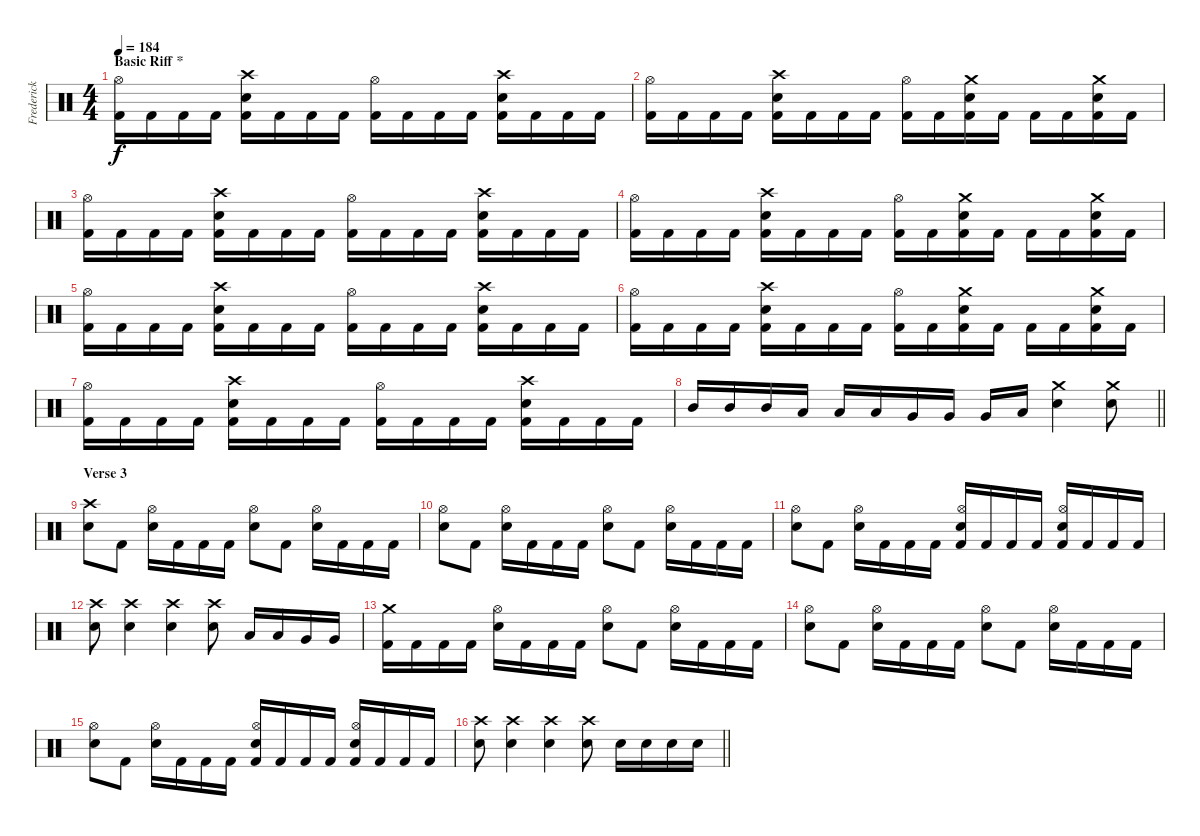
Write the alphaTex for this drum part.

\track ("Frederick Ehmke" "Frederick ") {instrument percussion}
\staff {score}
\articulation defaults
\ts (4 4)
\section ("" "Basic Riff *")
\tempo 184
\clef neutral
\ks c
("Kick (hit) 2" "Hi-Hat (open)").16{dy f} "Kick (hit) 2".16 "Kick (hit) 2".16 "Kick (hit) 2".16 ("Electric Snare (hit)" "Kick (hit) 2" "Crash high (hit)").16 "Kick (hit) 2".16 "Kick (hit) 2".16 "Kick (hit) 2".16 ("Kick (hit) 2" "Hi-Hat (open)").16 "Kick (hit) 2".16 "Kick (hit) 2".16 "Kick (hit) 2".16 ("Electric Snare (hit)" "Kick (hit) 2" "Crash high (hit)").16 "Kick (hit) 2".16 "Kick (hit) 2".16 "Kick (hit) 2".16 |
("Kick (hit) 2" "Hi-Hat (open)").16 "Kick (hit) 2".16 "Kick (hit) 2".16 "Kick (hit) 2".16 ("Electric Snare (hit)" "Kick (hit) 2" "Crash high (hit)").16 "Kick (hit) 2".16 "Kick (hit) 2".16 "Kick (hit) 2".16 ("Kick (hit) 2" "Hi-Hat (open)").16 "Kick (hit) 2".16 ("Electric Snare (hit)" "Kick (hit) 2" "Crash medium (hit)").16 "Kick (hit) 2".16 "Kick (hit) 2".16 "Kick (hit) 2".16 ("Electric Snare (hit)" "Kick (hit) 2" "Crash medium (hit)").16 "Kick (hit) 2".16 |
("Kick (hit) 2" "Hi-Hat (open)").16 "Kick (hit) 2".16 "Kick (hit) 2".16 "Kick (hit) 2".16 ("Electric Snare (hit)" "Kick (hit) 2" "Crash high (hit)").16 "Kick (hit) 2".16 "Kick (hit) 2".16 "Kick (hit) 2".16 ("Kick (hit) 2" "Hi-Hat (open)").16 "Kick (hit) 2".16 "Kick (hit) 2".16 "Kick (hit) 2".16 ("Electric Snare (hit)" "Kick (hit) 2" "Crash high (hit)").16 "Kick (hit) 2".16 "Kick (hit) 2".16 "Kick (hit) 2".16 |
("Kick (hit) 2" "Hi-Hat (open)").16 "Kick (hit) 2".16 "Kick (hit) 2".16 "Kick (hit) 2".16 ("Electric Snare (hit)" "Kick (hit) 2" "Crash high (hit)").16 "Kick (hit) 2".16 "Kick (hit) 2".16 "Kick (hit) 2".16 ("Kick (hit) 2" "Hi-Hat (open)").16 "Kick (hit) 2".16 ("Electric Snare (hit)" "Kick (hit) 2" "Crash medium (hit)").16 "Kick (hit) 2".16 "Kick (hit) 2".16 "Kick (hit) 2".16 ("Electric Snare (hit)" "Kick (hit) 2" "Crash medium (hit)").16 "Kick (hit) 2".16 |
("Kick (hit) 2" "Hi-Hat (open)").16 "Kick (hit) 2".16 "Kick (hit) 2".16 "Kick (hit) 2".16 ("Electric Snare (hit)" "Kick (hit) 2" "Crash high (hit)").16 "Kick (hit) 2".16 "Kick (hit) 2".16 "Kick (hit) 2".16 ("Kick (hit) 2" "Hi-Hat (open)").16 "Kick (hit) 2".16 "Kick (hit) 2".16 "Kick (hit) 2".16 ("Electric Snare (hit)" "Kick (hit) 2" "Crash high (hit)").16 "Kick (hit) 2".16 "Kick (hit) 2".16 "Kick (hit) 2".16 |
("Kick (hit) 2" "Hi-Hat (open)").16 "Kick (hit) 2".16 "Kick (hit) 2".16 "Kick (hit) 2".16 ("Electric Snare (hit)" "Kick (hit) 2" "Crash high (hit)").16 "Kick (hit) 2".16 "Kick (hit) 2".16 "Kick (hit) 2".16 ("Kick (hit) 2" "Hi-Hat (open)").16 "Kick (hit) 2".16 ("Electric Snare (hit)" "Kick (hit) 2" "Crash medium (hit)").16 "Kick (hit) 2".16 "Kick (hit) 2".16 "Kick (hit) 2".16 ("Electric Snare (hit)" "Kick (hit) 2" "Crash medium (hit)").16 "Kick (hit) 2".16 |
("Kick (hit) 2" "Hi-Hat (open)").16 "Kick (hit) 2".16 "Kick (hit) 2".16 "Kick (hit) 2".16 ("Electric Snare (hit)" "Kick (hit) 2" "Crash high (hit)").16 "Kick (hit) 2".16 "Kick (hit) 2".16 "Kick (hit) 2".16 ("Kick (hit) 2" "Hi-Hat (open)").16 "Kick (hit) 2".16 "Kick (hit) 2".16 "Kick (hit) 2".16 ("Electric Snare (hit)" "Kick (hit) 2" "Crash high (hit)").16 "Kick (hit) 2".16 "Kick (hit) 2".16 "Kick (hit) 2".16 |
\barLineRight lightlight "Mid Tom (hit)".16 "Mid Tom (hit)".16 "Mid Tom (hit)".16 "Low Tom (hit)".16 "Low Tom (hit)".16 "Low Tom (hit)".16 "Very Low Tom (hit)".16 "Very Low Tom (hit)".16 "Very Low Tom (hit)".16 "Low Floor Tom (hit)".16
("Electric Snare (hit)" "Crash medium (hit)").4 ("Electric Snare (hit)" "Crash medium (hit)").8 |
\section ("" "Verse 3")
("Electric Snare (hit)" "Crash high (hit)").8 "Kick (hit) 2".8 ("Electric Snare (hit)" "Hi-Hat (open)").16 "Kick (hit) 2".16 "Kick (hit) 2".16 "Kick (hit) 2".16 ("Electric Snare (hit)" "Hi-Hat (open)").8 "Kick (hit) 2".8 ("Electric Snare (hit)" "Hi-Hat (open)").16 "Kick (hit) 2".16 "Kick (hit) 2".16 "Kick (hit) 2".16 |
("Electric Snare (hit)" "Hi-Hat (open)").8 "Kick (hit) 2".8 ("Electric Snare (hit)" "Hi-Hat (open)").16 "Kick (hit) 2".16 "Kick (hit) 2".16 "Kick (hit) 2".16 ("Electric Snare (hit)" "Hi-Hat (open)").8 "Kick (hit) 2".8 ("Electric Snare (hit)" "Hi-Hat (open)").16 "Kick (hit) 2".16 "Kick (hit) 2".16 "Kick (hit) 2".16 |
("Electric Snare (hit)" "Hi-Hat (open)").8 "Kick (hit) 2".8 ("Electric Snare (hit)" "Hi-Hat (open)").16 "Kick (hit) 2".16 "Kick (hit) 2".16 "Kick (hit) 2".16 ("Electric Snare (hit)" "Kick (hit) 2" "Hi-Hat (open)").16 "Kick (hit) 2".16 "Kick (hit) 2".16 "Kick (hit) 2".16 ("Electric Snare (hit)" "Kick (hit) 2" "Hi-Hat (open)").16 "Kick (hit) 2".16 "Kick (hit) 2".16 "Kick (hit) 2".16 |
("Electric Snare (hit)" "Crash high (hit)").8 ("Electric Snare (hit)" "Crash high (hit)").4 ("Electric Snare (hit)" "Crash high (hit)").4 ("Electric Snare (hit)" "Crash high (hit)").8 "Low Tom (hit)".16 "Low Tom (hit)".16 "Very Low Tom (hit)".16 "Very Low Tom (hit)".16 |
("Kick (hit) 2" "Crash medium (hit)").16 "Kick (hit) 2".16 "Kick (hit) 2".16 "Kick (hit) 2".16 ("Electric Snare (hit)" "Hi-Hat (open)").16 "Kick (hit) 2".16 "Kick (hit) 2".16 "Kick (hit) 2".16 ("Electric Snare (hit)" "Hi-Hat (open)").8 "Kick (hit) 2".8 ("Electric Snare (hit)" "Hi-Hat (open)").16 "Kick (hit) 2".16 "Kick (hit) 2".16 "Kick (hit) 2".16 |
("Electric Snare (hit)" "Hi-Hat (open)").8 "Kick (hit) 2".8 ("Electric Snare (hit)" "Hi-Hat (open)").16 "Kick (hit) 2".16 "Kick (hit) 2".16 "Kick (hit) 2".16 ("Electric Snare (hit)" "Hi-Hat (open)").8 "Kick (hit) 2".8 ("Electric Snare (hit)" "Hi-Hat (open)").16 "Kick (hit) 2".16 "Kick (hit) 2".16 "Kick (hit) 2".16 |
("Electric Snare (hit)" "Hi-Hat (open)").8 "Kick (hit) 2".8 ("Electric Snare (hit)" "Hi-Hat (open)").16 "Kick (hit) 2".16 "Kick (hit) 2".16 "Kick (hit) 2".16 ("Electric Snare (hit)" "Kick (hit) 2" "Hi-Hat (open)").16 "Kick (hit) 2".16 "Kick (hit) 2".16 "Kick (hit) 2".16 ("Electric Snare (hit)" "Kick (hit) 2" "Hi-Hat (open)").16 "Kick (hit) 2".16 "Kick (hit) 2".16 "Kick (hit) 2".16 |
\barLineRight lightlight
("Electric Snare (hit)" "Crash high (hit)").8 ("Electric Snare (hit)" "Crash high (hit)").4 ("Electric Snare (hit)" "Crash high (hit)").4 ("Electric Snare (hit)" "Crash high (hit)").8 "Electric Snare (hit)".16 "Electric Snare (hit)".16 "Electric Snare (hit)".16 "Electric Snare (hit)".16
